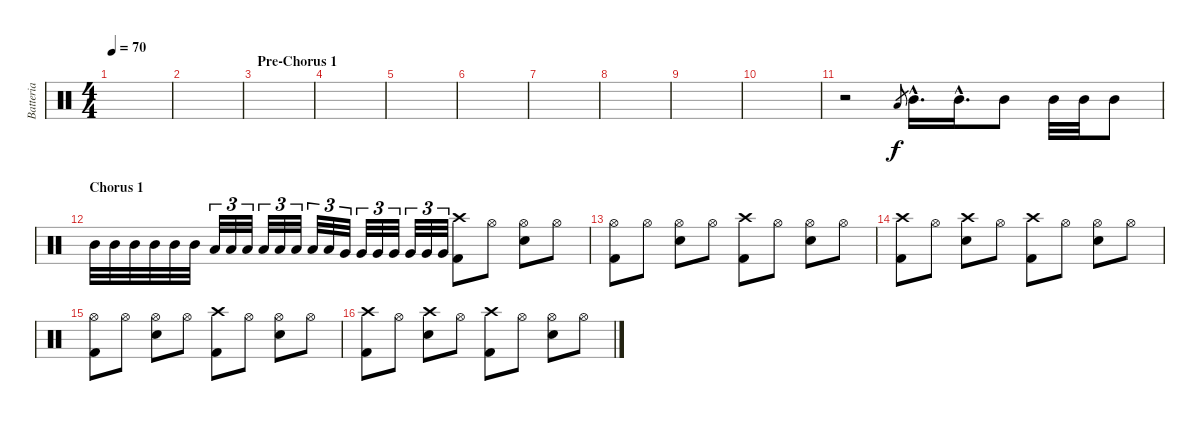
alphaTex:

\track ("Batteria" "Batteria") {instrument percussion}
\staff {score}
\articulation defaults
\ts (4 4)
\tempo 70
\clef neutral
\ks c
|
|
\section ("" "Pre-Chorus 1")
|
|
|
|
|
|
|
|
r.2 "Low Tom (hit)".8{gr} "Mid Tom (hit)"{hac}.16{d} "Mid Tom (hit)"{hac}.16{d} "Mid Tom (hit)".8 "Mid Tom (hit)".32 "Mid Tom (hit)".32 "Mid Tom (hit)".8 |
\section ("" "Chorus 1")
"Mid Tom (hit)".32 "Mid Tom (hit)".32 "Mid Tom (hit)".32 "Mid Tom (hit)".32 "Mid Tom (hit)".32 "Mid Tom (hit)".32 "Low Tom (hit)".32{tu (3 2)} "Low Tom (hit)".32{tu (3 2)} "Low Tom (hit)".32{tu (3 2)} "Low Tom (hit)".32{tu (3 2)} "Low Tom (hit)".32{tu (3 2)} "Low Tom (hit)".32{tu (3 2)} "Low Tom (hit)".32{tu (3 2)} "Low Tom (hit)".32{tu (3 2)} "Very Low Tom (hit)".32{tu (3 2)} "Very Low Tom (hit)".32{tu (3 2)} "Very Low Tom (hit)".32{tu (3 2)} "Very Low Tom (hit)".32{tu (3 2)} "Very Low Tom (hit)".32{tu (3 2)} "Very Low Tom (hit)".32{tu (3 2)} "Very Low Tom (hit)".32{tu (3 2)} ("Kick (hit) 2" "Crash high (hit)").8 "Hi-Hat (open)".8 ("Electric Snare (hit)" "Hi-Hat (open)").8 "Hi-Hat (open)".8 |
("Kick (hit) 2" "Hi-Hat (open)").8 "Hi-Hat (open)".8 ("Electric Snare (hit)" "Hi-Hat (open)").8 "Hi-Hat (open)".8 ("Kick (hit) 2" "Crash high (hit)").8 "Hi-Hat (open)".8 ("Electric Snare (hit)" "Hi-Hat (open)").8 "Hi-Hat (open)".8 |
("Kick (hit) 2" "Crash high (hit)").8 "Hi-Hat (open)".8 ("Electric Snare (hit)" "Crash high (hit)").8 "Hi-Hat (open)".8 ("Kick (hit) 2" "Crash high (hit)").8 "Hi-Hat (open)".8 ("Electric Snare (hit)" "Hi-Hat (open)").8 "Hi-Hat (open)".8 |
("Kick (hit) 2" "Hi-Hat (open)").8 "Hi-Hat (open)".8 ("Electric Snare (hit)" "Hi-Hat (open)").8 "Hi-Hat (open)".8 ("Kick (hit) 2" "Crash high (hit)").8 "Hi-Hat (open)".8 ("Electric Snare (hit)" "Hi-Hat (open)").8 "Hi-Hat (open)".8 |
("Kick (hit) 2" "Crash high (hit)").8 "Hi-Hat (open)".8 ("Electric Snare (hit)" "Crash high (hit)").8 "Hi-Hat (open)".8 ("Kick (hit) 2" "Crash high (hit)").8 "Hi-Hat (open)".8 ("Electric Snare (hit)" "Hi-Hat (open)").8 "Hi-Hat (open)".8
